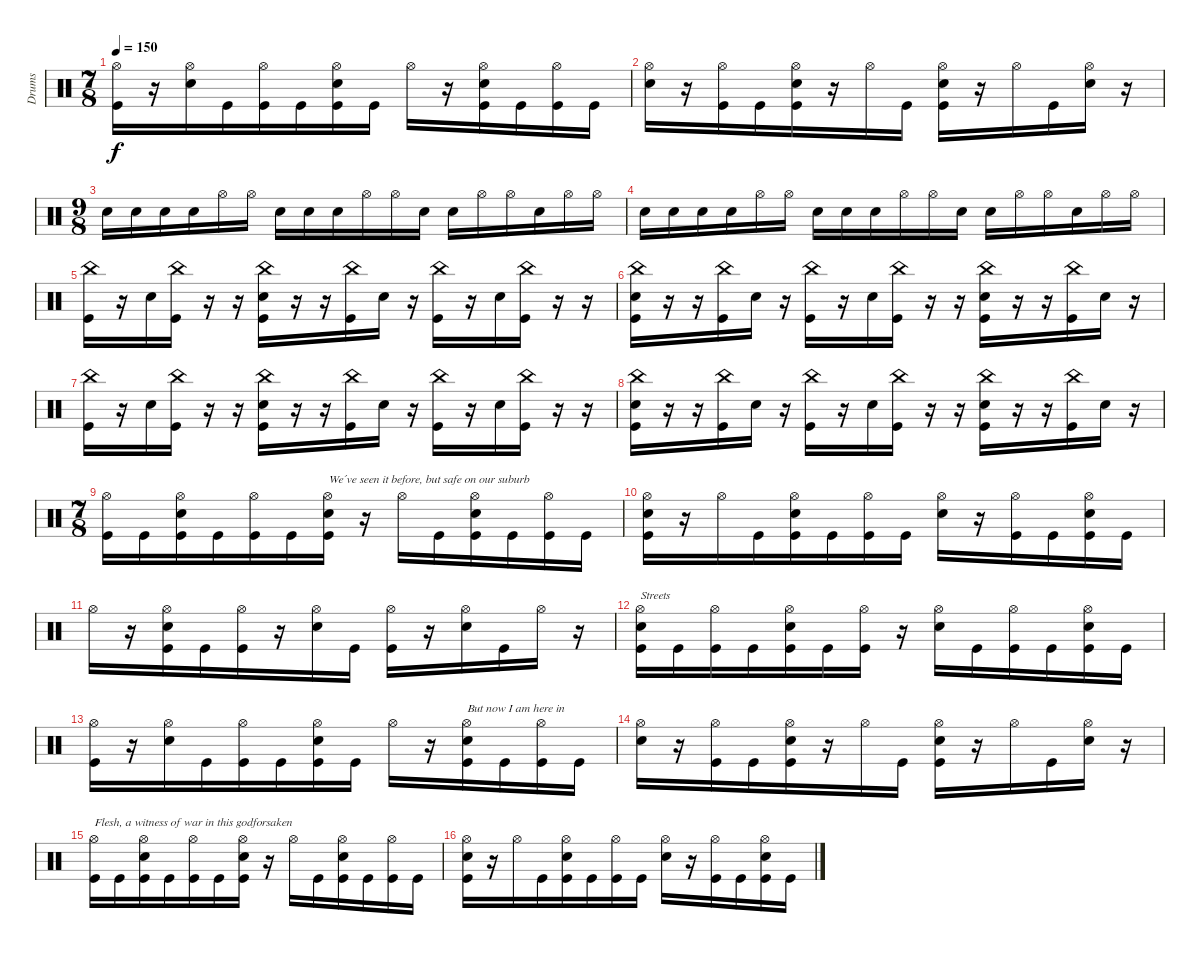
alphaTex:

\track ("Drums" "Drums") {instrument percussion}
\staff {score}
\articulation defaults
\ts (7 8)
\tempo 150
\clef neutral
\ks c
("Hi-Hat (open)" "Kick (hit)").16{dy f} r.16 ("Hi-Hat (open)" "Snare (hit) 2").16 "Kick (hit)".16 ("Hi-Hat (open)" "Kick (hit)").16 "Kick (hit)".16 ("Hi-Hat (open)" "Snare (hit) 2" "Kick (hit)").16 "Kick (hit)".16 "Hi-Hat (open)".16 r.16 ("Hi-Hat (open)" "Snare (hit) 2" "Kick (hit)").16 "Kick (hit)".16 ("Hi-Hat (open)" "Kick (hit)").16 "Kick (hit)".16 |
("Hi-Hat (open)" "Snare (hit) 2").16 r.16 ("Hi-Hat (open)" "Kick (hit)").16 "Kick (hit)".16 ("Hi-Hat (open)" "Snare (hit) 2" "Kick (hit)").16 r.16 "Hi-Hat (open)".16 "Kick (hit)".16 ("Hi-Hat (open)" "Snare (hit) 2" "Kick (hit)").16 r.16 "Hi-Hat (open)".16 "Kick (hit)".16 ("Hi-Hat (open)" "Snare (hit) 2").16 r.16 |
\ts (9 8)
"Snare (hit) 2".16 "Snare (hit) 2".16 "Snare (hit) 2".16 "Snare (hit) 2".16 "Hi-Hat (open)".16 "Hi-Hat (open)".16 "Snare (hit) 2".16 "Snare (hit) 2".16 "Snare (hit) 2".16 "Hi-Hat (open)".16 "Hi-Hat (open)".16 "Snare (hit) 2".16 "Snare (hit) 2".16 "Hi-Hat (open)".16 "Hi-Hat (open)".16 "Snare (hit) 2".16 "Hi-Hat (open)".16 "Hi-Hat (open)".16 |
"Snare (hit) 2".16 "Snare (hit) 2".16 "Snare (hit) 2".16 "Snare (hit) 2".16 "Hi-Hat (open)".16 "Hi-Hat (open)".16 "Snare (hit) 2".16 "Snare (hit) 2".16 "Snare (hit) 2".16 "Hi-Hat (open)".16 "Hi-Hat (open)".16 "Snare (hit) 2".16 "Snare (hit) 2".16 "Hi-Hat (open)".16 "Hi-Hat (open)".16 "Snare (hit) 2".16 "Hi-Hat (open)".16 "Hi-Hat (open)".16 |
("China (hit)" "Kick (hit)").16 r.16 "Snare (hit) 2".16 ("China (hit)" "Kick (hit)").16 r.16 r.16 ("China (hit)" "Snare (hit) 2" "Kick (hit)").16 r.16 r.16 ("China (hit)" "Kick (hit)").16 "Snare (hit) 2".16 r.16 ("China (hit)" "Kick (hit)").16 r.16 "Snare (hit) 2".16 ("China (hit)" "Kick (hit)").16 r.16 r.16 |
("China (hit)" "Snare (hit) 2" "Kick (hit)").16 r.16 r.16 ("China (hit)" "Kick (hit)").16 "Snare (hit) 2".16 r.16 ("China (hit)" "Kick (hit)").16 r.16 "Snare (hit) 2".16 ("China (hit)" "Kick (hit)").16 r.16 r.16 ("China (hit)" "Snare (hit) 2" "Kick (hit)").16 r.16 r.16 ("China (hit)" "Kick (hit)").16 "Snare (hit) 2".16 r.16 |
("China (hit)" "Kick (hit)").16 r.16 "Snare (hit) 2".16 ("China (hit)" "Kick (hit)").16 r.16 r.16 ("China (hit)" "Snare (hit) 2" "Kick (hit)").16 r.16 r.16 ("China (hit)" "Kick (hit)").16 "Snare (hit) 2".16 r.16 ("China (hit)" "Kick (hit)").16 r.16 "Snare (hit) 2".16 ("China (hit)" "Kick (hit)").16 r.16 r.16 |
("China (hit)" "Snare (hit) 2" "Kick (hit)").16 r.16 r.16 ("China (hit)" "Kick (hit)").16 "Snare (hit) 2".16 r.16 ("China (hit)" "Kick (hit)").16 r.16 "Snare (hit) 2".16 ("China (hit)" "Kick (hit)").16 r.16 r.16 ("China (hit)" "Snare (hit) 2" "Kick (hit)").16 r.16 r.16 ("China (hit)" "Kick (hit)").16 "Snare (hit) 2".16 r.16 |
\ts (7 8)
("Hi-Hat (open)" "Kick (hit)").16 "Kick (hit)".16 ("Hi-Hat (open)" "Snare (hit) 2" "Kick (hit)").16 "Kick (hit)".16 ("Hi-Hat (open)" "Kick (hit)").16 "Kick (hit)".16 ("Hi-Hat (open)" "Snare (hit) 2" "Kick (hit)").16{txt "We´ve seen it before, but safe on our suburb"} r.16 "Hi-Hat (open)".16 "Kick (hit)".16 ("Hi-Hat (open)" "Snare (hit) 2" "Kick (hit)").16 "Kick (hit)".16 ("Hi-Hat (open)" "Kick (hit)").16 "Kick (hit)".16 |
("Hi-Hat (open)" "Snare (hit) 2" "Kick (hit)").16 r.16 "Hi-Hat (open)".16 "Kick (hit)".16 ("Hi-Hat (open)" "Snare (hit) 2" "Kick (hit)").16 "Kick (hit)".16 ("Hi-Hat (open)" "Kick (hit)").16 "Kick (hit)".16 ("Hi-Hat (open)" "Snare (hit) 2").16 r.16 ("Hi-Hat (open)" "Kick (hit)").16 "Kick (hit)".16 ("Hi-Hat (open)" "Snare (hit) 2" "Kick (hit)").16 "Kick (hit)".16 |
"Hi-Hat (open)".16 r.16 ("Hi-Hat (open)" "Snare (hit) 2" "Kick (hit)").16 "Kick (hit)".16 ("Hi-Hat (open)" "Kick (hit)").16 r.16 ("Hi-Hat (open)" "Snare (hit) 2").16 "Kick (hit)".16 ("Hi-Hat (open)" "Kick (hit)").16 r.16 ("Hi-Hat (open)" "Snare (hit) 2").16 "Kick (hit)".16 "Hi-Hat (open)".16 r.16 |
("Hi-Hat (open)" "Snare (hit) 2" "Kick (hit)").16{txt "Streets"} "Kick (hit)".16 ("Hi-Hat (open)" "Kick (hit)").16 "Kick (hit)".16 ("Hi-Hat (open)" "Snare (hit) 2" "Kick (hit)").16 "Kick (hit)".16 ("Hi-Hat (open)" "Kick (hit)").16 r.16 ("Hi-Hat (open)" "Snare (hit) 2").16 "Kick (hit)".16 ("Hi-Hat (open)" "Kick (hit)").16 "Kick (hit)".16 ("Hi-Hat (open)" "Snare (hit) 2" "Kick (hit)").16 "Kick (hit)".16 |
("Hi-Hat (open)" "Kick (hit)").16 r.16 ("Hi-Hat (open)" "Snare (hit) 2").16 "Kick (hit)".16 ("Hi-Hat (open)" "Kick (hit)").16 "Kick (hit)".16 ("Hi-Hat (open)" "Snare (hit) 2" "Kick (hit)").16 "Kick (hit)".16 "Hi-Hat (open)".16 r.16 ("Hi-Hat (open)" "Snare (hit) 2" "Kick (hit)").16{txt "But now I am here in"} "Kick (hit)".16 ("Hi-Hat (open)" "Kick (hit)").16 "Kick (hit)".16 |
("Hi-Hat (open)" "Snare (hit) 2").16 r.16 ("Hi-Hat (open)" "Kick (hit)").16 "Kick (hit)".16 ("Hi-Hat (open)" "Snare (hit) 2" "Kick (hit)").16 r.16 "Hi-Hat (open)".16 "Kick (hit)".16 ("Hi-Hat (open)" "Snare (hit) 2" "Kick (hit)").16 r.16 "Hi-Hat (open)".16 "Kick (hit)".16 ("Hi-Hat (open)" "Snare (hit) 2").16 r.16 |
("Hi-Hat (open)" "Kick (hit)").16{txt "Flesh, a witness of war in this godforsaken"} "Kick (hit)".16 ("Hi-Hat (open)" "Snare (hit) 2" "Kick (hit)").16 "Kick (hit)".16 ("Hi-Hat (open)" "Kick (hit)").16 "Kick (hit)".16 ("Hi-Hat (open)" "Snare (hit) 2" "Kick (hit)").16 r.16 "Hi-Hat (open)".16 "Kick (hit)".16 ("Hi-Hat (open)" "Snare (hit) 2" "Kick (hit)").16 "Kick (hit)".16 ("Hi-Hat (open)" "Kick (hit)").16 "Kick (hit)".16 |
("Hi-Hat (open)" "Snare (hit) 2" "Kick (hit)").16 r.16 "Hi-Hat (open)".16 "Kick (hit)".16 ("Hi-Hat (open)" "Snare (hit) 2" "Kick (hit)").16 "Kick (hit)".16 ("Hi-Hat (open)" "Kick (hit)").16 "Kick (hit)".16 ("Hi-Hat (open)" "Snare (hit) 2").16 r.16 ("Hi-Hat (open)" "Kick (hit)").16 "Kick (hit)".16 ("Hi-Hat (open)" "Snare (hit) 2" "Kick (hit)").16 "Kick (hit)".16
